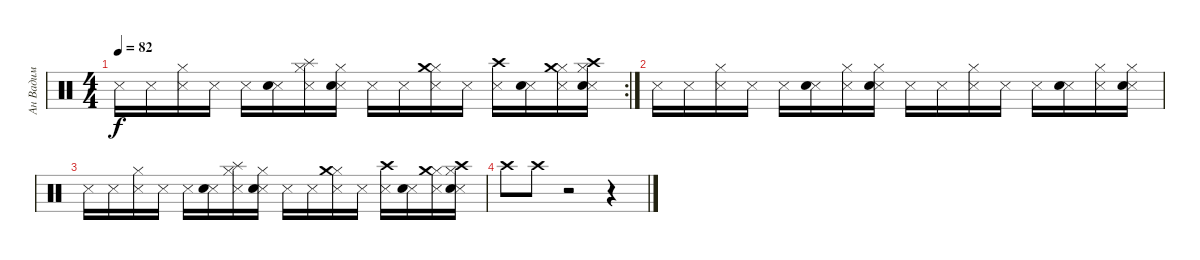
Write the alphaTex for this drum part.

\track ("Ан Вадим" "Ан Вадим") {instrument percussion}
\staff {score}
\articulation defaults
\rc 2
\ts (4 4)
\tempo 82
\clef neutral
\ks c "Snare (side stick) 3".16{dy f} "Snare (side stick) 3".16
("Snare (side stick) 3" "Hi-Hat (closed)").16 "Snare (side stick) 3".16 "Snare (side stick) 3".16 ("Snare (side stick) 3" "Snare (hit) 2").16 ("Snare (side stick) 3" "Hi-Hat (closed)" "Splash (hit)").16 ("Snare (side stick) 3" "Hi-Hat (closed)" "Snare (hit) 2").16 "Snare (side stick) 3".16 "Snare (side stick) 3".16 ("Snare (side stick) 3" "Hi-Hat (closed)" "Crash medium (hit)").16 "Snare (side stick) 3".16 ("Snare (side stick) 3" "Crash high (hit)").16 ("Snare (side stick) 3" "Snare (hit) 2").16 ("Snare (side stick) 3" "Hi-Hat (closed)" "Crash medium (hit)").16 ("Snare (side stick) 3" "Hi-Hat (closed)" "Snare (hit) 2" "Crash high (hit)").16 |
"Snare (side stick) 3".16 "Snare (side stick) 3".16 ("Snare (side stick) 3" "Hi-Hat (closed)").16 "Snare (side stick) 3".16 "Snare (side stick) 3".16 ("Snare (side stick) 3" "Snare (hit) 2").16 ("Snare (side stick) 3" "Hi-Hat (closed)").16 ("Snare (side stick) 3" "Hi-Hat (closed)" "Snare (hit) 2").16 "Snare (side stick) 3".16 "Snare (side stick) 3".16 ("Snare (side stick) 3" "Hi-Hat (closed)").16 "Snare (side stick) 3".16 "Snare (side stick) 3".16 ("Snare (side stick) 3" "Snare (hit) 2").16 ("Snare (side stick) 3" "Hi-Hat (closed)").16 ("Snare (side stick) 3" "Hi-Hat (closed)" "Snare (hit) 2").16 |
"Snare (side stick) 3".16 "Snare (side stick) 3".16 ("Snare (side stick) 3" "Hi-Hat (closed)").16 "Snare (side stick) 3".16 "Snare (side stick) 3".16 ("Snare (side stick) 3" "Snare (hit) 2").16 ("Snare (side stick) 3" "Hi-Hat (closed)" "Splash (hit)").16 ("Snare (side stick) 3" "Hi-Hat (closed)" "Snare (hit) 2").16 "Snare (side stick) 3".16 "Snare (side stick) 3".16 ("Snare (side stick) 3" "Hi-Hat (closed)" "Crash medium (hit)").16 "Snare (side stick) 3".16 ("Snare (side stick) 3" "Crash high (hit)").16 ("Snare (side stick) 3" "Snare (hit) 2").16 ("Snare (side stick) 3" "Hi-Hat (closed)" "Crash medium (hit)").16 ("Snare (side stick) 3" "Hi-Hat (closed)" "Snare (hit) 2" "Crash high (hit)").16 |
"Crash high (hit)".8 "Crash high (hit)".8 r.2 r.4
